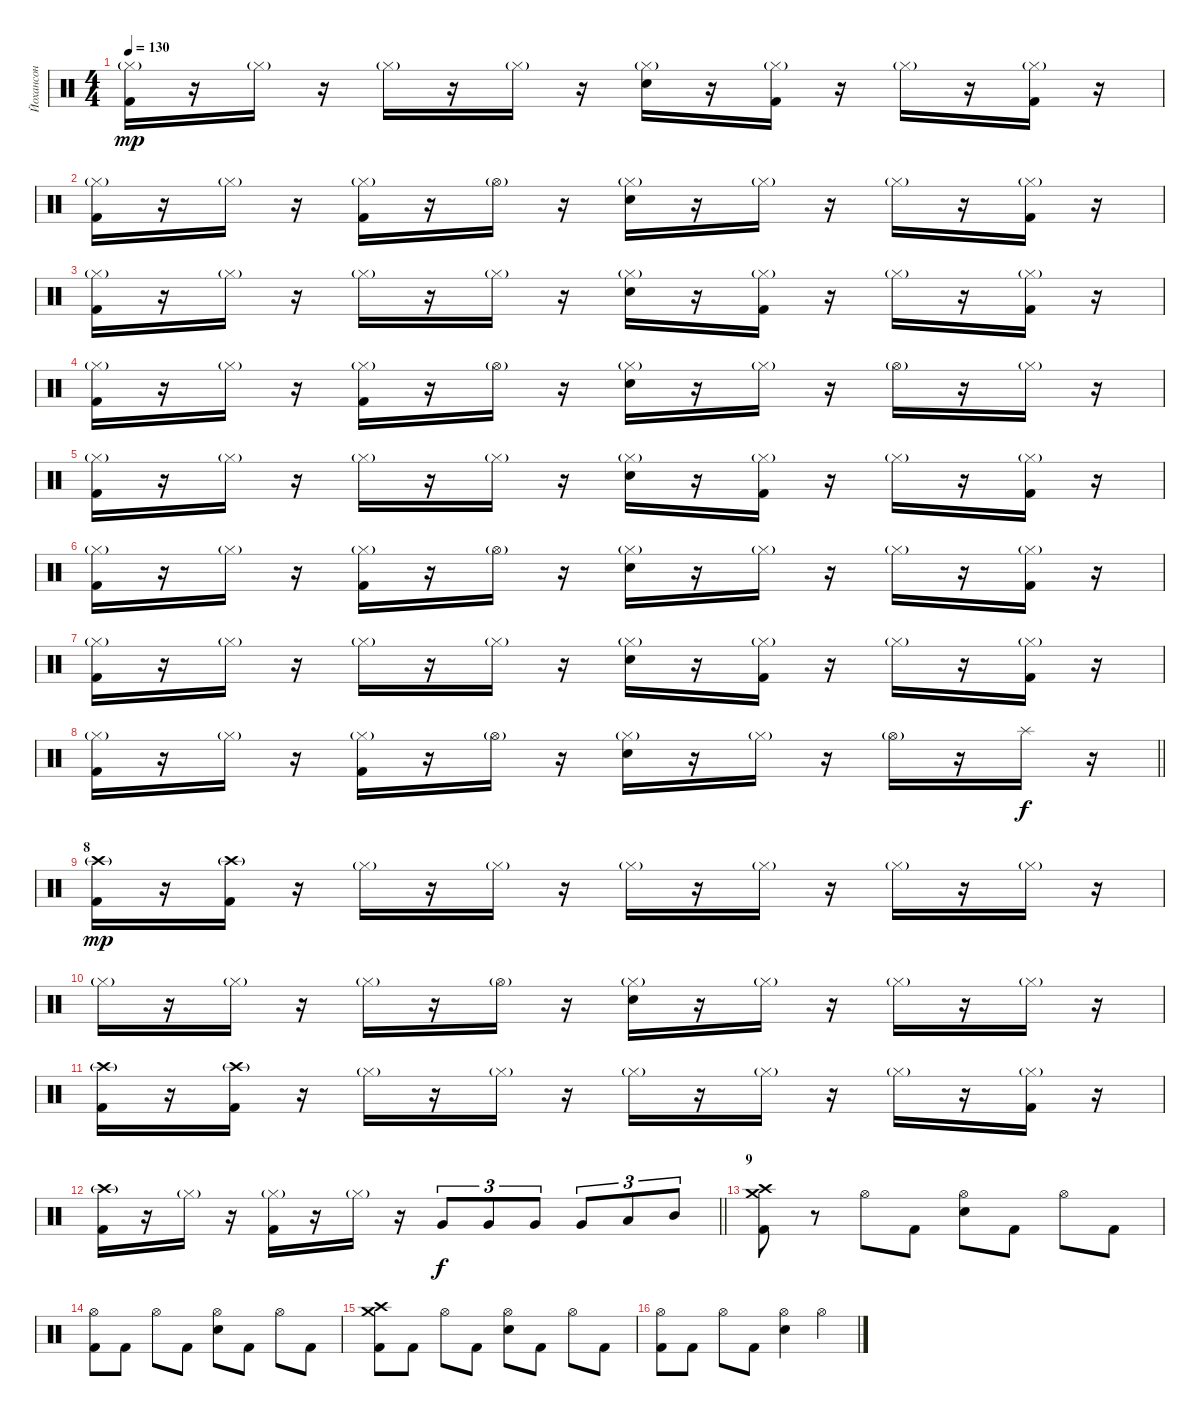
\track ("Йохансон" "Йохансон") {instrument percussion}
\staff {score}
\articulation defaults
\ts (4 4)
\tempo 130
\clef neutral
\ks c
("Hi-Hat (closed)"{g} "Kick (hit) 2").16{dy mp} r.16 "Hi-Hat (closed)"{g}.16 r.16 "Hi-Hat (closed)"{g}.16 r.16 "Hi-Hat (closed)"{g}.16 r.16 ("Hi-Hat (closed)"{g} "Snare (hit) 2").16 r.16 ("Hi-Hat (closed)"{g} "Kick (hit) 2").16 r.16 "Hi-Hat (closed)"{g}.16 r.16 ("Hi-Hat (closed)"{g} "Kick (hit) 2").16 r.16 |
("Hi-Hat (closed)"{g} "Kick (hit) 2").16 r.16 "Hi-Hat (closed)"{g}.16 r.16 ("Hi-Hat (closed)"{g} "Kick (hit) 2").16 r.16 "Hi-Hat (open)"{g}.16 r.16 ("Hi-Hat (closed)"{g} "Snare (hit) 2").16 r.16 "Hi-Hat (closed)"{g}.16 r.16 "Hi-Hat (closed)"{g}.16 r.16 ("Hi-Hat (closed)"{g} "Kick (hit) 2").16 r.16 |
("Hi-Hat (closed)"{g} "Kick (hit) 2").16 r.16 "Hi-Hat (closed)"{g}.16 r.16 "Hi-Hat (closed)"{g}.16 r.16 "Hi-Hat (closed)"{g}.16 r.16 ("Hi-Hat (closed)"{g} "Snare (hit) 2").16 r.16 ("Hi-Hat (closed)"{g} "Kick (hit) 2").16 r.16 "Hi-Hat (closed)"{g}.16 r.16 ("Hi-Hat (closed)"{g} "Kick (hit) 2").16 r.16 |
("Hi-Hat (closed)"{g} "Kick (hit) 2").16 r.16 "Hi-Hat (closed)"{g}.16 r.16 ("Hi-Hat (closed)"{g} "Kick (hit) 2").16 r.16 "Hi-Hat (open)"{g}.16 r.16 ("Hi-Hat (closed)"{g} "Snare (hit) 2").16 r.16 "Hi-Hat (closed)"{g}.16 r.16 "Hi-Hat (open)"{g}.16 r.16 "Hi-Hat (closed)"{g}.16 r.16 |
("Hi-Hat (closed)"{g} "Kick (hit) 2").16 r.16 "Hi-Hat (closed)"{g}.16 r.16 "Hi-Hat (closed)"{g}.16 r.16 "Hi-Hat (closed)"{g}.16 r.16 ("Hi-Hat (closed)"{g} "Snare (hit) 2").16 r.16 ("Hi-Hat (closed)"{g} "Kick (hit) 2").16 r.16 "Hi-Hat (closed)"{g}.16 r.16 ("Hi-Hat (closed)"{g} "Kick (hit) 2").16 r.16 |
("Hi-Hat (closed)"{g} "Kick (hit) 2").16 r.16 "Hi-Hat (closed)"{g}.16 r.16 ("Hi-Hat (closed)"{g} "Kick (hit) 2").16 r.16 "Hi-Hat (open)"{g}.16 r.16 ("Hi-Hat (closed)"{g} "Snare (hit) 2").16 r.16 "Hi-Hat (closed)"{g}.16 r.16 "Hi-Hat (closed)"{g}.16 r.16 ("Hi-Hat (closed)"{g} "Kick (hit) 2").16 r.16 |
("Hi-Hat (closed)"{g} "Kick (hit) 2").16 r.16 "Hi-Hat (closed)"{g}.16 r.16 "Hi-Hat (closed)"{g}.16 r.16 "Hi-Hat (closed)"{g}.16 r.16 ("Hi-Hat (closed)"{g} "Snare (hit) 2").16 r.16 ("Hi-Hat (closed)"{g} "Kick (hit) 2").16 r.16 "Hi-Hat (closed)"{g}.16 r.16 ("Hi-Hat (closed)"{g} "Kick (hit) 2").16 r.16 |
\barLineRight lightlight
("Hi-Hat (closed)"{g} "Kick (hit) 2").16 r.16 "Hi-Hat (closed)"{g}.16 r.16 ("Hi-Hat (closed)"{g} "Kick (hit) 2").16 r.16 "Hi-Hat (open)"{g}.16 r.16 ("Hi-Hat (closed)"{g} "Snare (hit) 2").16 r.16 "Hi-Hat (closed)"{g}.16 r.16 "Hi-Hat (open)"{g}.16 r.16 "Splash (hit)".16{dy f} r.16 |
\section ("" "8")
("Crash high (hit)"{g} "Kick (hit) 2").16{dy mp} r.16 ("Crash high (hit)"{g} "Kick (hit) 2").16 r.16 "Hi-Hat (closed)"{g}.16 r.16 "Hi-Hat (closed)"{g}.16 r.16 "Hi-Hat (closed)"{g}.16 r.16 "Hi-Hat (closed)"{g}.16 r.16 "Hi-Hat (closed)"{g}.16 r.16 "Hi-Hat (closed)"{g}.16 r.16 |
"Hi-Hat (closed)"{g}.16 r.16 "Hi-Hat (closed)"{g}.16 r.16 "Hi-Hat (closed)"{g}.16 r.16 "Hi-Hat (open)"{g}.16 r.16 ("Hi-Hat (closed)"{g} "Snare (hit) 2").16 r.16 "Hi-Hat (closed)"{g}.16 r.16 "Hi-Hat (closed)"{g}.16 r.16 "Hi-Hat (closed)"{g}.16 r.16 |
("Crash high (hit)"{g} "Kick (hit) 2").16 r.16 ("Crash high (hit)"{g} "Kick (hit) 2").16 r.16 "Hi-Hat (closed)"{g}.16 r.16 "Hi-Hat (closed)"{g}.16 r.16 "Hi-Hat (closed)"{g}.16 r.16 "Hi-Hat (closed)"{g}.16 r.16 "Hi-Hat (closed)"{g}.16 r.16 ("Hi-Hat (closed)"{g} "Kick (hit) 2").16 r.16 |
\barLineRight lightlight
("Crash high (hit)"{g} "Kick (hit) 2").16 r.16 "Hi-Hat (closed)"{g}.16 r.16 ("Hi-Hat (closed)"{g} "Kick (hit) 2").16 r.16 "Hi-Hat (closed)"{g}.16 r.16 "Very Low Tom (hit)".8{tu (3 2) dy f} "Very Low Tom (hit)".8{tu (3 2)} "Very Low Tom (hit)".8{tu (3 2)} "Very Low Tom (hit)".8{tu (3 2)} "Low Tom (hit)".8{tu (3 2)} "Mid Tom (hit)".8{tu (3 2)} |
\section ("" "9")
("Crash medium (hit)" "Crash high (hit)" "Kick (hit) 2").8 r.8 "Hi-Hat (open)".8 "Kick (hit) 2".8 ("Hi-Hat (open)" "Snare (hit) 2").8 "Kick (hit) 2".8 "Hi-Hat (open)".8 "Kick (hit) 2".8 |
("Hi-Hat (open)" "Kick (hit) 2").8 "Kick (hit) 2".8 "Hi-Hat (open)".8 "Kick (hit) 2".8 ("Hi-Hat (open)" "Snare (hit) 2").8 "Kick (hit) 2".8 "Hi-Hat (open)".8 "Kick (hit) 2".8 |
("Crash medium (hit)" "Crash high (hit)" "Kick (hit) 2").8 "Kick (hit) 2".8 "Hi-Hat (open)".8 "Kick (hit) 2".8 ("Hi-Hat (open)" "Snare (hit) 2").8 "Kick (hit) 2".8 "Hi-Hat (open)".8 "Kick (hit) 2".8 |
("Hi-Hat (open)" "Kick (hit) 2").8 "Kick (hit) 2".8 "Hi-Hat (open)".8 "Kick (hit) 2".8 ("Hi-Hat (open)" "Snare (hit) 2").4 "Hi-Hat (open)".4
